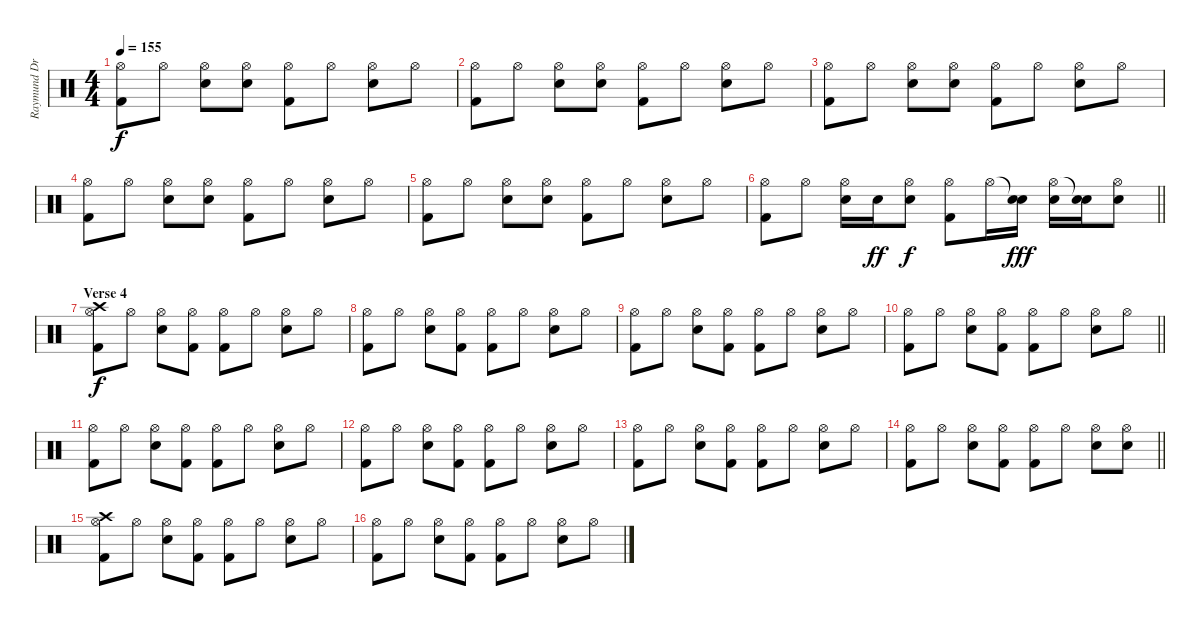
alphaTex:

\track ("Raymund Drums" "Raymund Dr") {instrument percussion}
\staff {score}
\articulation defaults
\ts (4 4)
\tempo 155
\clef neutral
\ks c
("Hi-Hat (open)" "Kick (hit) 2").8{dy f} "Hi-Hat (open)".8 ("Hi-Hat (open)" "Snare (hit) 2").8 ("Hi-Hat (open)" "Snare (hit) 2").8 ("Hi-Hat (open)" "Kick (hit) 2").8 "Hi-Hat (open)".8 ("Hi-Hat (open)" "Snare (hit) 2").8 "Hi-Hat (open)".8 |
("Hi-Hat (open)" "Kick (hit) 2").8 "Hi-Hat (open)".8 ("Hi-Hat (open)" "Snare (hit) 2").8 ("Hi-Hat (open)" "Snare (hit) 2").8 ("Hi-Hat (open)" "Kick (hit) 2").8 "Hi-Hat (open)".8 ("Hi-Hat (open)" "Snare (hit) 2").8 "Hi-Hat (open)".8 |
("Hi-Hat (open)" "Kick (hit) 2").8 "Hi-Hat (open)".8 ("Hi-Hat (open)" "Snare (hit) 2").8 ("Hi-Hat (open)" "Snare (hit) 2").8 ("Hi-Hat (open)" "Kick (hit) 2").8 "Hi-Hat (open)".8 ("Hi-Hat (open)" "Snare (hit) 2").8 "Hi-Hat (open)".8 |
("Hi-Hat (open)" "Kick (hit) 2").8 "Hi-Hat (open)".8 ("Hi-Hat (open)" "Snare (hit) 2").8 ("Hi-Hat (open)" "Snare (hit) 2").8 ("Hi-Hat (open)" "Kick (hit) 2").8 "Hi-Hat (open)".8 ("Hi-Hat (open)" "Snare (hit) 2").8 "Hi-Hat (open)".8 |
("Hi-Hat (open)" "Kick (hit) 2").8 "Hi-Hat (open)".8 ("Hi-Hat (open)" "Snare (hit) 2").8 ("Hi-Hat (open)" "Snare (hit) 2").8 ("Hi-Hat (open)" "Kick (hit) 2").8 "Hi-Hat (open)".8 ("Hi-Hat (open)" "Snare (hit) 2").8 "Hi-Hat (open)".8 |
\barLineRight lightlight
("Hi-Hat (open)" "Kick (hit) 2").8 "Hi-Hat (open)".8 ("Hi-Hat (open)" "Snare (hit) 2").16 "Snare (hit) 2".16{dy ff} ("Hi-Hat (open)" "Snare (hit) 2").8{dy f} ("Hi-Hat (open)" "Kick (hit) 2").8 "Hi-Hat (open)".16 ("Snare (hit)"{t} "Snare (hit) 2").16{dy fff} ("Hi-Hat (open)" "Snare (hit) 2").16 ("Snare (hit)"{t} "Snare (hit) 2").16 ("Hi-Hat (open)" "Snare (hit) 2").8 |
\section ("" "Verse 4")
("Hi-Hat (open)" "Kick (hit) 2" "Crash high (hit)").8{dy f} "Hi-Hat (open)".8 ("Hi-Hat (open)" "Snare (hit) 2").8 ("Hi-Hat (open)" "Kick (hit) 2").8 ("Hi-Hat (open)" "Kick (hit) 2").8 "Hi-Hat (open)".8 ("Hi-Hat (open)" "Snare (hit) 2").8 "Hi-Hat (open)".8 |
("Hi-Hat (open)" "Kick (hit) 2").8 "Hi-Hat (open)".8 ("Hi-Hat (open)" "Snare (hit) 2").8 ("Hi-Hat (open)" "Kick (hit) 2").8 ("Hi-Hat (open)" "Kick (hit) 2").8 "Hi-Hat (open)".8 ("Hi-Hat (open)" "Snare (hit) 2").8 "Hi-Hat (open)".8 |
("Hi-Hat (open)" "Kick (hit) 2").8 "Hi-Hat (open)".8 ("Hi-Hat (open)" "Snare (hit) 2").8 ("Hi-Hat (open)" "Kick (hit) 2").8 ("Hi-Hat (open)" "Kick (hit) 2").8 "Hi-Hat (open)".8 ("Hi-Hat (open)" "Snare (hit) 2").8 "Hi-Hat (open)".8 |
\barLineRight lightlight
("Hi-Hat (open)" "Kick (hit) 2").8 "Hi-Hat (open)".8 ("Hi-Hat (open)" "Snare (hit) 2").8 ("Hi-Hat (open)" "Kick (hit) 2").8 ("Hi-Hat (open)" "Kick (hit) 2").8 "Hi-Hat (open)".8 ("Hi-Hat (open)" "Snare (hit) 2").8 "Hi-Hat (open)".8 |
("Hi-Hat (open)" "Kick (hit) 2").8 "Hi-Hat (open)".8 ("Hi-Hat (open)" "Snare (hit) 2").8 ("Hi-Hat (open)" "Kick (hit) 2").8 ("Hi-Hat (open)" "Kick (hit) 2").8 "Hi-Hat (open)".8 ("Hi-Hat (open)" "Snare (hit) 2").8 "Hi-Hat (open)".8 |
("Hi-Hat (open)" "Kick (hit) 2").8 "Hi-Hat (open)".8 ("Hi-Hat (open)" "Snare (hit) 2").8 ("Hi-Hat (open)" "Kick (hit) 2").8 ("Hi-Hat (open)" "Kick (hit) 2").8 "Hi-Hat (open)".8 ("Hi-Hat (open)" "Snare (hit) 2").8 "Hi-Hat (open)".8 |
("Hi-Hat (open)" "Kick (hit) 2").8 "Hi-Hat (open)".8 ("Hi-Hat (open)" "Snare (hit) 2").8 ("Hi-Hat (open)" "Kick (hit) 2").8 ("Hi-Hat (open)" "Kick (hit) 2").8 "Hi-Hat (open)".8 ("Hi-Hat (open)" "Snare (hit) 2").8 "Hi-Hat (open)".8 |
\barLineRight lightlight
("Hi-Hat (open)" "Kick (hit) 2").8 "Hi-Hat (open)".8 ("Hi-Hat (open)" "Snare (hit) 2").8 ("Hi-Hat (open)" "Kick (hit) 2").8 ("Hi-Hat (open)" "Kick (hit) 2").8 "Hi-Hat (open)".8 ("Hi-Hat (open)" "Snare (hit) 2").8 ("Hi-Hat (open)" "Snare (hit) 2").8 |
("Hi-Hat (open)" "Kick (hit) 2" "Crash high (hit)").8 "Hi-Hat (open)".8 ("Hi-Hat (open)" "Snare (hit) 2").8 ("Hi-Hat (open)" "Kick (hit) 2").8 ("Hi-Hat (open)" "Kick (hit) 2").8 "Hi-Hat (open)".8 ("Hi-Hat (open)" "Snare (hit) 2").8 "Hi-Hat (open)".8 |
("Hi-Hat (open)" "Kick (hit) 2").8 "Hi-Hat (open)".8 ("Hi-Hat (open)" "Snare (hit) 2").8 ("Hi-Hat (open)" "Kick (hit) 2").8 ("Hi-Hat (open)" "Kick (hit) 2").8 "Hi-Hat (open)".8 ("Hi-Hat (open)" "Snare (hit) 2").8 "Hi-Hat (open)".8
